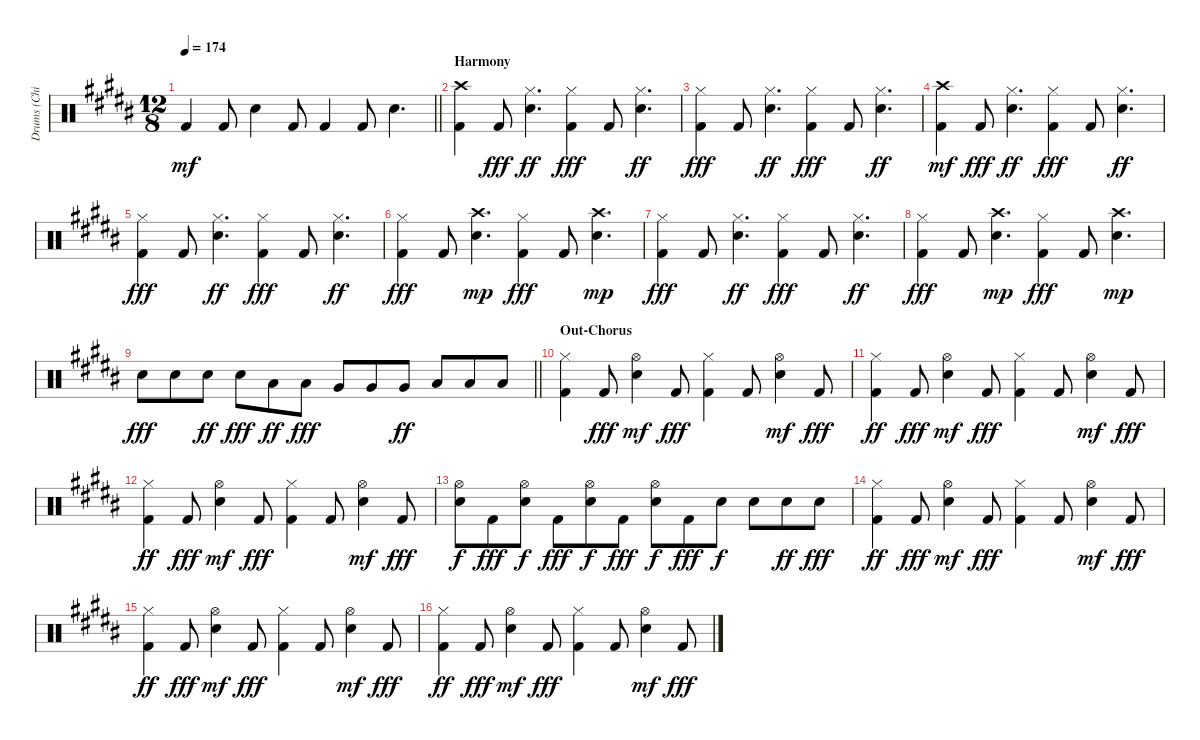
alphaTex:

\track ("Drums (Chinyakov)" "Drums (Chi") {instrument percussion}
\staff {score}
\articulation defaults
\ts (12 8)
\tempo 174
\clef neutral
\barLineRight lightlight
\ks b "Kick (hit) 2".4{dy mf} "Kick (hit) 2".8 "Electric Snare (hit)".4 "Kick (hit) 2".8 "Kick (hit) 2".4 "Kick (hit) 2".8 "Electric Snare (hit)".4{d}
|
\section ("" "Harmony")
("Kick (hit) 2" "Crash high (hit)").4 "Kick (hit) 2".8{dy fff} ("Electric Snare (hit)" "Hi-Hat (closed)").4{d dy ff} ("Kick (hit) 2" "Hi-Hat (closed)").4{dy fff} "Kick (hit) 2".8 ("Electric Snare (hit)" "Hi-Hat (closed)").4{d dy ff} |
("Kick (hit) 2" "Hi-Hat (closed)").4{dy fff} "Kick (hit) 2".8 ("Electric Snare (hit)" "Hi-Hat (closed)").4{d dy ff} ("Kick (hit) 2" "Hi-Hat (closed)").4{dy fff} "Kick (hit) 2".8 ("Electric Snare (hit)" "Hi-Hat (closed)").4{d dy ff} |
("Kick (hit) 2" "Crash high (hit)").4{dy mf} "Kick (hit) 2".8{dy fff} ("Electric Snare (hit)" "Hi-Hat (closed)").4{d dy ff} ("Kick (hit) 2" "Hi-Hat (closed)").4{dy fff} "Kick (hit) 2".8 ("Electric Snare (hit)" "Hi-Hat (closed)").4{d dy ff} |
("Kick (hit) 2" "Hi-Hat (closed)").4{dy fff} "Kick (hit) 2".8 ("Electric Snare (hit)" "Hi-Hat (closed)").4{d dy ff} ("Kick (hit) 2" "Hi-Hat (closed)").4{dy fff} "Kick (hit) 2".8 ("Electric Snare (hit)" "Hi-Hat (closed)").4{d dy ff} |
("Kick (hit) 2" "Hi-Hat (closed)").4{dy fff} "Kick (hit) 2".8 ("Electric Snare (hit)" "Crash high (hit)").4{d dy mp} ("Kick (hit) 2" "Hi-Hat (closed)").4{dy fff} "Kick (hit) 2".8 ("Electric Snare (hit)" "Crash high (hit)").4{d dy mp} |
("Kick (hit) 2" "Hi-Hat (closed)").4{dy fff} "Kick (hit) 2".8 ("Electric Snare (hit)" "Hi-Hat (closed)").4{d dy ff} ("Kick (hit) 2" "Hi-Hat (closed)").4{dy fff} "Kick (hit) 2".8 ("Electric Snare (hit)" "Hi-Hat (closed)").4{d dy ff} |
("Kick (hit) 2" "Hi-Hat (closed)").4{dy fff} "Kick (hit) 2".8 ("Electric Snare (hit)" "Crash high (hit)").4{d dy mp} ("Kick (hit) 2" "Hi-Hat (closed)").4{dy fff} "Kick (hit) 2".8 ("Electric Snare (hit)" "Crash high (hit)").4{d dy mp} |
\barLineRight lightlight "Electric Snare (hit)".8{dy fff} "Electric Snare (hit)".8 "Electric Snare (hit)".8{dy ff} "Electric Snare (hit)".8{dy fff} "Low Tom (hit)".8{dy ff} "Low Tom (hit)".8{dy fff} "Very Low Tom (hit)".8 "Very Low Tom (hit)".8 "Very Low Tom (hit)".8{dy ff} "Low Floor Tom (hit)".8 "Low Floor Tom (hit)".8 "Low Floor Tom (hit)".8
|
\section ("" "Out-Chorus")
("Kick (hit) 2" "Hi-Hat (closed)").4 "Kick (hit) 2".8{dy fff} ("Electric Snare (hit)" "Hi-Hat (open)").4{dy mf} "Kick (hit) 2".8{dy fff} ("Kick (hit) 2" "Hi-Hat (closed)").4 "Kick (hit) 2".8 ("Electric Snare (hit)" "Hi-Hat (open)").4{dy mf} "Kick (hit) 2".8{dy fff} |
("Kick (hit) 2" "Hi-Hat (closed)").4{dy ff} "Kick (hit) 2".8{dy fff} ("Electric Snare (hit)" "Hi-Hat (open)").4{dy mf} "Kick (hit) 2".8{dy fff} ("Kick (hit) 2" "Hi-Hat (closed)").4 "Kick (hit) 2".8 ("Electric Snare (hit)" "Hi-Hat (open)").4{dy mf} "Kick (hit) 2".8{dy fff} |
("Kick (hit) 2" "Hi-Hat (closed)").4{dy ff} "Kick (hit) 2".8{dy fff} ("Electric Snare (hit)" "Hi-Hat (open)").4{dy mf} "Kick (hit) 2".8{dy fff} ("Kick (hit) 2" "Hi-Hat (closed)").4 "Kick (hit) 2".8 ("Electric Snare (hit)" "Hi-Hat (open)").4{dy mf} "Kick (hit) 2".8{dy fff} |
("Electric Snare (hit)" "Hi-Hat (open)").8{dy f} "Kick (hit) 2".8{dy fff} ("Electric Snare (hit)" "Hi-Hat (open)").8{dy f} "Kick (hit) 2".8{dy fff} ("Electric Snare (hit)" "Hi-Hat (open)").8{dy f} "Kick (hit) 2".8{dy fff} ("Electric Snare (hit)" "Hi-Hat (open)").8{dy f} "Kick (hit) 2".8{dy fff} "Electric Snare (hit)".8{dy f} "Electric Snare (hit)".8 "Electric Snare (hit)".8{dy ff} "Electric Snare (hit)".8{dy fff} |
("Kick (hit) 2" "Hi-Hat (closed)").4{dy ff} "Kick (hit) 2".8{dy fff} ("Electric Snare (hit)" "Hi-Hat (open)").4{dy mf} "Kick (hit) 2".8{dy fff} ("Kick (hit) 2" "Hi-Hat (closed)").4 "Kick (hit) 2".8 ("Electric Snare (hit)" "Hi-Hat (open)").4{dy mf} "Kick (hit) 2".8{dy fff} |
("Kick (hit) 2" "Hi-Hat (closed)").4{dy ff} "Kick (hit) 2".8{dy fff} ("Electric Snare (hit)" "Hi-Hat (open)").4{dy mf} "Kick (hit) 2".8{dy fff} ("Kick (hit) 2" "Hi-Hat (closed)").4 "Kick (hit) 2".8 ("Electric Snare (hit)" "Hi-Hat (open)").4{dy mf} "Kick (hit) 2".8{dy fff} |
("Kick (hit) 2" "Hi-Hat (closed)").4{dy ff} "Kick (hit) 2".8{dy fff} ("Electric Snare (hit)" "Hi-Hat (open)").4{dy mf} "Kick (hit) 2".8{dy fff} ("Kick (hit) 2" "Hi-Hat (closed)").4 "Kick (hit) 2".8 ("Electric Snare (hit)" "Hi-Hat (open)").4{dy mf} "Kick (hit) 2".8{dy fff}
